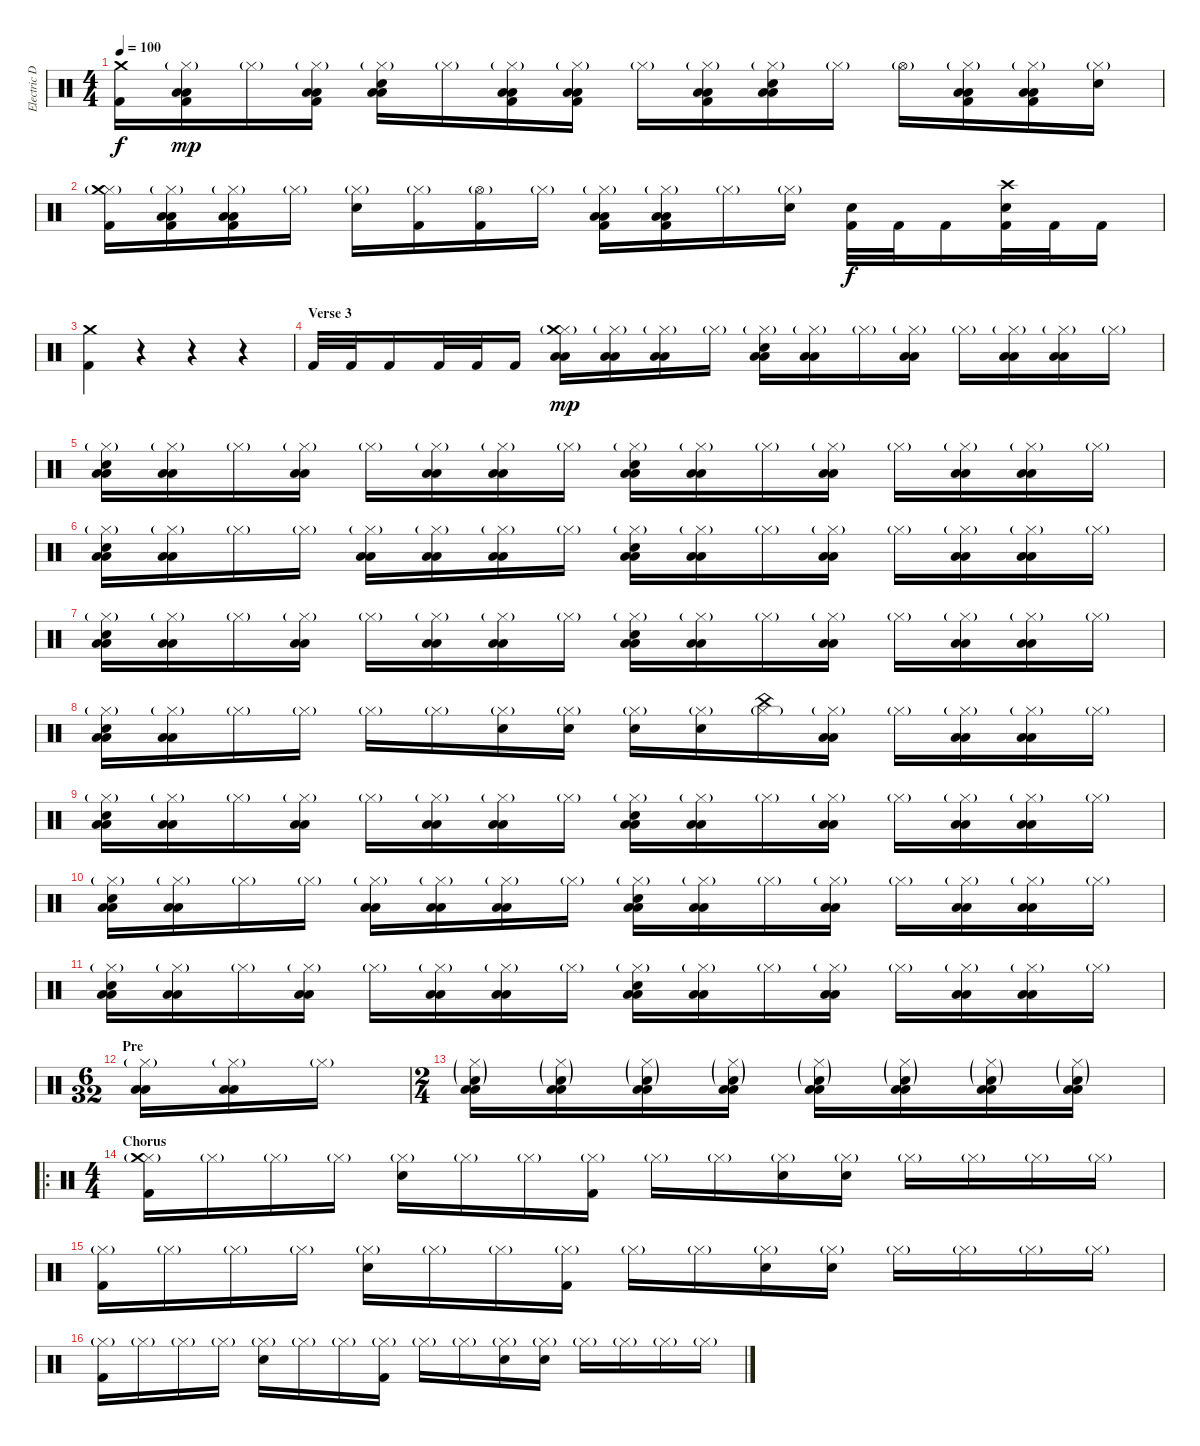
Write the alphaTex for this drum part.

\track ("Electric Drums" "Electric D") {instrument percussion}
\staff {score}
\articulation defaults
\ts (4 4)
\tempo 100
\clef neutral
\ks c
("Kick (hit) 2" "Crash medium (hit)").16{dy f} ("Hi-Hat (closed)"{g} "Kick (hit) 2" "Low Tom (hit)" "Low Floor Tom (hit)").16{dy mp} "Hi-Hat (closed)"{g}.16 ("Hi-Hat (closed)"{g} "Kick (hit) 2" "Low Tom (hit)" "Low Floor Tom (hit)").16 ("Hi-Hat (closed)"{g} "Snare (hit) 2" "Low Tom (hit)" "Low Floor Tom (hit)").16 "Hi-Hat (closed)"{g}.16 ("Hi-Hat (closed)"{g} "Kick (hit) 2" "Low Floor Tom (hit)" "Low Tom (hit)").16 ("Hi-Hat (closed)"{g} "Kick (hit) 2" "Low Floor Tom (hit)" "Low Tom (hit)").16 "Hi-Hat (closed)"{g}.16 ("Hi-Hat (closed)"{g} "Kick (hit) 2" "Low Floor Tom (hit)" "Low Tom (hit)").16 ("Hi-Hat (closed)"{g} "Snare (hit) 2" "Low Floor Tom (hit)" "Low Tom (hit)").16 "Hi-Hat (closed)"{g}.16 "Hi-Hat (open)"{g}.16 ("Hi-Hat (closed)"{g} "Kick (hit) 2" "Low Tom (hit)" "Low Floor Tom (hit)").16 ("Hi-Hat (closed)"{g} "Kick (hit) 2" "Low Tom (hit)" "Low Floor Tom (hit)").16 ("Hi-Hat (closed)"{g} "Snare (hit) 2").16 |
("Hi-Hat (closed)"{g} "Crash medium (hit)" "Kick (hit) 2").16 ("Hi-Hat (closed)"{g} "Low Tom (hit)" "Low Floor Tom (hit)" "Kick (hit) 2").16 ("Hi-Hat (closed)"{g} "Kick (hit) 2" "Low Floor Tom (hit)" "Low Tom (hit)").16 "Hi-Hat (closed)"{g}.16 ("Hi-Hat (closed)"{g} "Snare (hit) 2").16 ("Hi-Hat (closed)"{g} "Kick (hit) 2").16 ("Hi-Hat (open)"{g} "Kick (hit) 2").16 "Hi-Hat (closed)"{g}.16 ("Hi-Hat (closed)"{g} "Low Tom (hit)" "Low Floor Tom (hit)" "Kick (hit) 2").16 ("Hi-Hat (closed)"{g} "Low Tom (hit)" "Low Floor Tom (hit)" "Kick (hit) 2").16 "Hi-Hat (closed)"{g}.16 ("Hi-Hat (closed)"{g} "Snare (hit) 2").16 ("Snare (hit) 2" "Kick (hit) 2").32{dy f} "Kick (hit) 2".32 "Kick (hit) 2".16 ("Crash high (hit)" "Snare (hit) 2" "Kick (hit) 2").32 "Kick (hit) 2".32 "Kick (hit) 2".16 |
("Crash medium (hit)" "Kick (hit) 2").4{volume 0} r.4 r.4 r.4{volume 13} |
\section ("" "Verse 3")
"Kick (hit) 2".32 "Kick (hit) 2".32 "Kick (hit) 2".16 "Kick (hit) 2".32 "Kick (hit) 2".32 "Kick (hit) 2".16 ("Hi-Hat (closed)"{g} "Crash medium (hit)" "Low Floor Tom (hit)" "Low Tom (hit)").16{dy mp} ("Hi-Hat (closed)"{g} "Low Floor Tom (hit)" "Low Tom (hit)").16 ("Hi-Hat (closed)"{g} "Low Floor Tom (hit)" "Low Tom (hit)").16 "Hi-Hat (closed)"{g}.16 ("Hi-Hat (closed)"{g} "Snare (hit) 2" "Low Floor Tom (hit)" "Low Tom (hit)").16 ("Hi-Hat (closed)"{g} "Low Floor Tom (hit)" "Low Tom (hit)").16 "Hi-Hat (closed)"{g}.16 ("Hi-Hat (closed)"{g} "Low Floor Tom (hit)" "Low Tom (hit)").16 "Hi-Hat (closed)"{g}.16 ("Hi-Hat (closed)"{g} "Low Floor Tom (hit)" "Low Tom (hit)").16 ("Hi-Hat (closed)"{g} "Low Floor Tom (hit)" "Low Tom (hit)").16 "Hi-Hat (closed)"{g}.16 |
("Hi-Hat (closed)"{g} "Snare (hit) 2" "Low Floor Tom (hit)" "Low Tom (hit)").16 ("Hi-Hat (closed)"{g} "Low Floor Tom (hit)" "Low Tom (hit)").16 "Hi-Hat (closed)"{g}.16 ("Hi-Hat (closed)"{g} "Low Floor Tom (hit)" "Low Tom (hit)").16 "Hi-Hat (closed)"{g}.16 ("Hi-Hat (closed)"{g} "Low Floor Tom (hit)" "Low Tom (hit)").16 ("Hi-Hat (closed)"{g} "Low Floor Tom (hit)" "Low Tom (hit)").16 "Hi-Hat (closed)"{g}.16 ("Hi-Hat (closed)"{g} "Snare (hit) 2" "Low Floor Tom (hit)" "Low Tom (hit)").16 ("Hi-Hat (closed)"{g} "Low Floor Tom (hit)" "Low Tom (hit)").16 "Hi-Hat (closed)"{g}.16 ("Hi-Hat (closed)"{g} "Low Floor Tom (hit)" "Low Tom (hit)").16 "Hi-Hat (closed)"{g}.16 ("Hi-Hat (closed)"{g} "Low Floor Tom (hit)" "Low Tom (hit)").16 ("Hi-Hat (closed)"{g} "Low Floor Tom (hit)" "Low Tom (hit)").16 "Hi-Hat (closed)"{g}.16 |
("Hi-Hat (closed)"{g} "Snare (hit) 2" "Low Floor Tom (hit)" "Low Tom (hit)").16 ("Hi-Hat (closed)"{g} "Low Floor Tom (hit)" "Low Tom (hit)").16 "Hi-Hat (closed)"{g}.16 "Hi-Hat (closed)"{g}.16 ("Hi-Hat (closed)"{g} "Low Floor Tom (hit)" "Low Tom (hit)").16 ("Hi-Hat (closed)"{g} "Low Floor Tom (hit)" "Low Tom (hit)").16 ("Hi-Hat (closed)"{g} "Low Floor Tom (hit)" "Low Tom (hit)").16 "Hi-Hat (closed)"{g}.16 ("Hi-Hat (closed)"{g} "Snare (hit) 2" "Low Floor Tom (hit)" "Low Tom (hit)").16 ("Hi-Hat (closed)"{g} "Low Floor Tom (hit)" "Low Tom (hit)").16 "Hi-Hat (closed)"{g}.16 ("Hi-Hat (closed)"{g} "Low Floor Tom (hit)" "Low Tom (hit)").16 "Hi-Hat (closed)"{g}.16 ("Hi-Hat (closed)"{g} "Low Floor Tom (hit)" "Low Tom (hit)").16 ("Hi-Hat (closed)"{g} "Low Floor Tom (hit)" "Low Tom (hit)").16 "Hi-Hat (closed)"{g}.16 |
("Hi-Hat (closed)"{g} "Snare (hit) 2" "Low Floor Tom (hit)" "Low Tom (hit)").16 ("Hi-Hat (closed)"{g} "Low Floor Tom (hit)" "Low Tom (hit)").16 "Hi-Hat (closed)"{g}.16 ("Hi-Hat (closed)"{g} "Low Floor Tom (hit)" "Low Tom (hit)").16 "Hi-Hat (closed)"{g}.16 ("Hi-Hat (closed)"{g} "Low Floor Tom (hit)" "Low Tom (hit)").16 ("Hi-Hat (closed)"{g} "Low Floor Tom (hit)" "Low Tom (hit)").16 "Hi-Hat (closed)"{g}.16 ("Hi-Hat (closed)"{g} "Snare (hit) 2" "Low Floor Tom (hit)" "Low Tom (hit)").16 ("Hi-Hat (closed)"{g} "Low Floor Tom (hit)" "Low Tom (hit)").16 "Hi-Hat (closed)"{g}.16 ("Hi-Hat (closed)"{g} "Low Floor Tom (hit)" "Low Tom (hit)").16 "Hi-Hat (closed)"{g}.16 ("Hi-Hat (closed)"{g} "Low Floor Tom (hit)" "Low Tom (hit)").16 ("Hi-Hat (closed)"{g} "Low Floor Tom (hit)" "Low Tom (hit)").16 "Hi-Hat (closed)"{g}.16 |
("Hi-Hat (closed)"{g} "Snare (hit) 2" "Low Floor Tom (hit)" "Low Tom (hit)").16 ("Hi-Hat (closed)"{g} "Low Floor Tom (hit)" "Low Tom (hit)").16 "Hi-Hat (closed)"{g}.16 "Hi-Hat (closed)"{g}.16 "Hi-Hat (closed)"{g}.16 "Hi-Hat (closed)"{g}.16 ("Hi-Hat (closed)"{g} "Snare (hit) 2").16 ("Hi-Hat (closed)"{g} "Snare (hit) 2").16 ("Hi-Hat (closed)"{g} "Snare (hit) 2").16 ("Hi-Hat (closed)"{g} "Snare (hit) 2").16 ("Hi-Hat (closed)"{g} "China (hit)").16 ("Hi-Hat (closed)"{g} "Low Floor Tom (hit)" "Low Tom (hit)").16 "Hi-Hat (closed)"{g}.16 ("Hi-Hat (closed)"{g} "Low Floor Tom (hit)" "Low Tom (hit)").16 ("Hi-Hat (closed)"{g} "Low Floor Tom (hit)" "Low Tom (hit)").16 "Hi-Hat (closed)"{g}.16 |
("Hi-Hat (closed)"{g} "Snare (hit) 2" "Low Floor Tom (hit)" "Low Tom (hit)").16 ("Hi-Hat (closed)"{g} "Low Floor Tom (hit)" "Low Tom (hit)").16 "Hi-Hat (closed)"{g}.16 ("Hi-Hat (closed)"{g} "Low Floor Tom (hit)" "Low Tom (hit)").16 "Hi-Hat (closed)"{g}.16 ("Hi-Hat (closed)"{g} "Low Floor Tom (hit)" "Low Tom (hit)").16 ("Hi-Hat (closed)"{g} "Low Floor Tom (hit)" "Low Tom (hit)").16 "Hi-Hat (closed)"{g}.16 ("Hi-Hat (closed)"{g} "Snare (hit) 2" "Low Floor Tom (hit)" "Low Tom (hit)").16 ("Hi-Hat (closed)"{g} "Low Floor Tom (hit)" "Low Tom (hit)").16 "Hi-Hat (closed)"{g}.16 ("Hi-Hat (closed)"{g} "Low Floor Tom (hit)" "Low Tom (hit)").16 "Hi-Hat (closed)"{g}.16 ("Hi-Hat (closed)"{g} "Low Floor Tom (hit)" "Low Tom (hit)").16 ("Hi-Hat (closed)"{g} "Low Floor Tom (hit)" "Low Tom (hit)").16 "Hi-Hat (closed)"{g}.16 |
("Hi-Hat (closed)"{g} "Snare (hit) 2" "Low Floor Tom (hit)" "Low Tom (hit)").16 ("Hi-Hat (closed)"{g} "Low Floor Tom (hit)" "Low Tom (hit)").16 "Hi-Hat (closed)"{g}.16 "Hi-Hat (closed)"{g}.16 ("Hi-Hat (closed)"{g} "Low Floor Tom (hit)" "Low Tom (hit)").16 ("Hi-Hat (closed)"{g} "Low Floor Tom (hit)" "Low Tom (hit)").16 ("Hi-Hat (closed)"{g} "Low Floor Tom (hit)" "Low Tom (hit)").16 "Hi-Hat (closed)"{g}.16 ("Hi-Hat (closed)"{g} "Snare (hit) 2" "Low Floor Tom (hit)" "Low Tom (hit)").16 ("Hi-Hat (closed)"{g} "Low Floor Tom (hit)" "Low Tom (hit)").16 "Hi-Hat (closed)"{g}.16 ("Hi-Hat (closed)"{g} "Low Floor Tom (hit)" "Low Tom (hit)").16 "Hi-Hat (closed)"{g}.16 ("Hi-Hat (closed)"{g} "Low Floor Tom (hit)" "Low Tom (hit)").16 ("Hi-Hat (closed)"{g} "Low Floor Tom (hit)" "Low Tom (hit)").16 "Hi-Hat (closed)"{g}.16 |
("Hi-Hat (closed)"{g} "Snare (hit) 2" "Low Floor Tom (hit)" "Low Tom (hit)").16 ("Hi-Hat (closed)"{g} "Low Floor Tom (hit)" "Low Tom (hit)").16 "Hi-Hat (closed)"{g}.16 ("Hi-Hat (closed)"{g} "Low Floor Tom (hit)" "Low Tom (hit)").16 "Hi-Hat (closed)"{g}.16 ("Hi-Hat (closed)"{g} "Low Floor Tom (hit)" "Low Tom (hit)").16 ("Hi-Hat (closed)"{g} "Low Floor Tom (hit)" "Low Tom (hit)").16 "Hi-Hat (closed)"{g}.16 ("Hi-Hat (closed)"{g} "Snare (hit) 2" "Low Floor Tom (hit)" "Low Tom (hit)").16 ("Hi-Hat (closed)"{g} "Low Floor Tom (hit)" "Low Tom (hit)").16 "Hi-Hat (closed)"{g}.16 ("Hi-Hat (closed)"{g} "Low Floor Tom (hit)" "Low Tom (hit)").16 "Hi-Hat (closed)"{g}.16 ("Hi-Hat (closed)"{g} "Low Floor Tom (hit)" "Low Tom (hit)").16 ("Hi-Hat (closed)"{g} "Low Floor Tom (hit)" "Low Tom (hit)").16 "Hi-Hat (closed)"{g}.16 |
\ts (6 32)
\section ("" "Pre")
("Hi-Hat (closed)"{g} "Low Floor Tom (hit)" "Low Tom (hit)").16 ("Hi-Hat (closed)"{g} "Low Floor Tom (hit)" "Low Tom (hit)").16 "Hi-Hat (closed)"{g}.16 |
\ts (2 4)
("Hi-Hat (closed)"{g} "Low Tom (hit)" "Low Floor Tom (hit)" "Snare (hit) 2"{g}).16 ("Hi-Hat (closed)"{g} "Low Tom (hit)" "Low Floor Tom (hit)" "Snare (hit) 2"{g}).16 ("Hi-Hat (closed)"{g} "Low Tom (hit)" "Low Floor Tom (hit)" "Snare (hit) 2"{g}).16 ("Hi-Hat (closed)"{g} "Low Tom (hit)" "Low Floor Tom (hit)" "Snare (hit) 2"{g}).16 ("Hi-Hat (closed)"{g} "Low Tom (hit)" "Low Floor Tom (hit)" "Snare (hit) 2"{g}).16 ("Hi-Hat (closed)"{g} "Low Tom (hit)" "Low Floor Tom (hit)" "Snare (hit) 2"{g}).16 ("Hi-Hat (closed)"{g} "Low Tom (hit)" "Low Floor Tom (hit)" "Snare (hit) 2"{g}).16 ("Hi-Hat (closed)"{g} "Low Tom (hit)" "Low Floor Tom (hit)" "Snare (hit) 2"{g}).16 |
\ro
\ts (4 4)
\section ("" "Chorus")
("Hi-Hat (closed)"{g} "Kick (hit) 2" "Crash medium (hit)").16 "Hi-Hat (closed)"{g}.16 "Hi-Hat (closed)"{g}.16 "Hi-Hat (closed)"{g}.16 ("Hi-Hat (closed)"{g} "Snare (hit) 2").16 "Hi-Hat (closed)"{g}.16 "Hi-Hat (closed)"{g}.16 ("Hi-Hat (closed)"{g} "Kick (hit) 2").16 "Hi-Hat (closed)"{g}.16 "Hi-Hat (closed)"{g}.16 ("Hi-Hat (closed)"{g} "Snare (hit) 2").16 ("Hi-Hat (closed)"{g} "Snare (hit) 2").16 "Hi-Hat (closed)"{g}.16 "Hi-Hat (closed)"{g}.16 "Hi-Hat (closed)"{g}.16 "Hi-Hat (closed)"{g}.16 |
("Hi-Hat (closed)"{g} "Kick (hit) 2").16 "Hi-Hat (closed)"{g}.16 "Hi-Hat (closed)"{g}.16 "Hi-Hat (closed)"{g}.16 ("Hi-Hat (closed)"{g} "Snare (hit) 2").16 "Hi-Hat (closed)"{g}.16 "Hi-Hat (closed)"{g}.16 ("Hi-Hat (closed)"{g} "Kick (hit) 2").16 "Hi-Hat (closed)"{g}.16 "Hi-Hat (closed)"{g}.16 ("Hi-Hat (closed)"{g} "Snare (hit) 2").16 ("Hi-Hat (closed)"{g} "Snare (hit) 2").16 "Hi-Hat (closed)"{g}.16 "Hi-Hat (closed)"{g}.16 "Hi-Hat (closed)"{g}.16 "Hi-Hat (closed)"{g}.16 |
("Hi-Hat (closed)"{g} "Kick (hit) 2").16 "Hi-Hat (closed)"{g}.16 "Hi-Hat (closed)"{g}.16 "Hi-Hat (closed)"{g}.16 ("Hi-Hat (closed)"{g} "Snare (hit) 2").16 "Hi-Hat (closed)"{g}.16 "Hi-Hat (closed)"{g}.16 ("Hi-Hat (closed)"{g} "Kick (hit) 2").16 "Hi-Hat (closed)"{g}.16 "Hi-Hat (closed)"{g}.16 ("Hi-Hat (closed)"{g} "Snare (hit) 2").16 ("Hi-Hat (closed)"{g} "Snare (hit) 2").16 "Hi-Hat (closed)"{g}.16 "Hi-Hat (closed)"{g}.16 "Hi-Hat (closed)"{g}.16 "Hi-Hat (closed)"{g}.16
